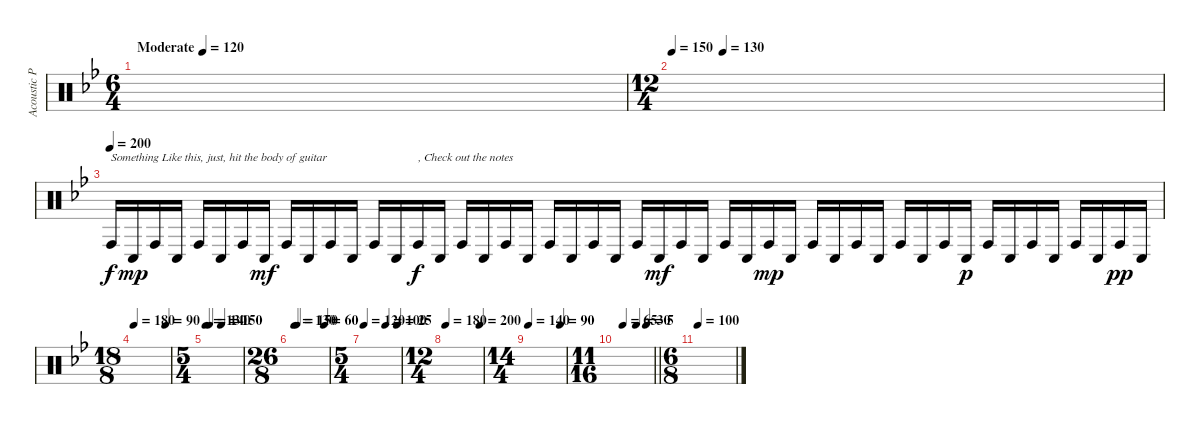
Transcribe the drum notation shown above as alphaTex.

\track ("Acoustic Percussion" "Acoustic P") {instrument percussion}
\staff {score}
\articulation defaults
\ts (6 4)
\tempo (120 "Moderate")
\tempo 180
\tempo (120 "Moderate")
\clef neutral
\ks bb
|
\ts (12 4)
\tempo 150
\tempo (130 0.10416666666666667)
|
\tempo (200)
"Conga high (hit)".16{txt "Something Like this, just, hit the body of guitar"} "Conga low (hit)".16{dy mp} "Conga high (hit)".16 "Conga low (hit)".16 "Conga high (hit)".16 "Conga low (hit)".16 "Conga high (hit)".16 "Conga low (hit)".16{dy mf} "Conga high (hit)".16 "Conga low (hit)".16 "Conga high (hit)".16 "Conga low (hit)".16 "Conga high (hit)".16 "Conga low (hit)".16 "Conga high (hit)".16{txt ", Check out the notes" dy f} "Conga low (hit)".16 "Conga high (hit)".16 "Conga low (hit)".16 "Conga high (hit)".16 "Conga low (hit)".16 "Conga high (hit)".16 "Conga low (hit)".16 "Conga high (hit)".16 "Conga low (hit)".16 "Conga high (hit)".16 "Conga low (hit)".16{dy mf} "Conga high (hit)".16 "Conga low (hit)".16 "Conga high (hit)".16 "Conga low (hit)".16 "Conga high (hit)".16{dy mp} "Conga low (hit)".16 "Conga high (hit)".16 "Conga low (hit)".16 "Conga high (hit)".16 "Conga low (hit)".16 "Conga high (hit)".16 "Conga low (hit)".16 "Conga high (hit)".16 "Conga low (hit)".16{dy p} "Conga high (hit)".16 "Conga low (hit)".16 "Conga high (hit)".16 "Conga low (hit)".16 "Conga high (hit)".16 "Conga low (hit)".16 "Conga high (hit)".16{dy pp} "Conga low (hit)".16 |
\ts (18 8)
\tempo 180
\tempo (90 0.8888888888888888)
|
\ts (5 4)
\tempo 130
\tempo (140 0.1)
\tempo (150 0.425)
|
\ts (26 8)
\tempo (130 0.09615384615384616)
\tempo (150 0.15384615384615385)
\tempo (60 0.8942307692307693)
|
\ts (5 4)
\tempo 120
\tempo (100 0.6)
\tempo (25 0.925)
|
\ts (12 4)
\tempo 180
\tempo (200 0.9375)
|
\ts (14 4)
\tempo 140
\tempo (90 0.8660714285714286)
|
\ts (11 16)
\tempo (65 0.18181818181818182)
\tempo (30 0.5454545454545454)
\tempo (5 0.8181818181818182)
\barLineRight lightlight
|
\ts (6 8)
\tempo 100
